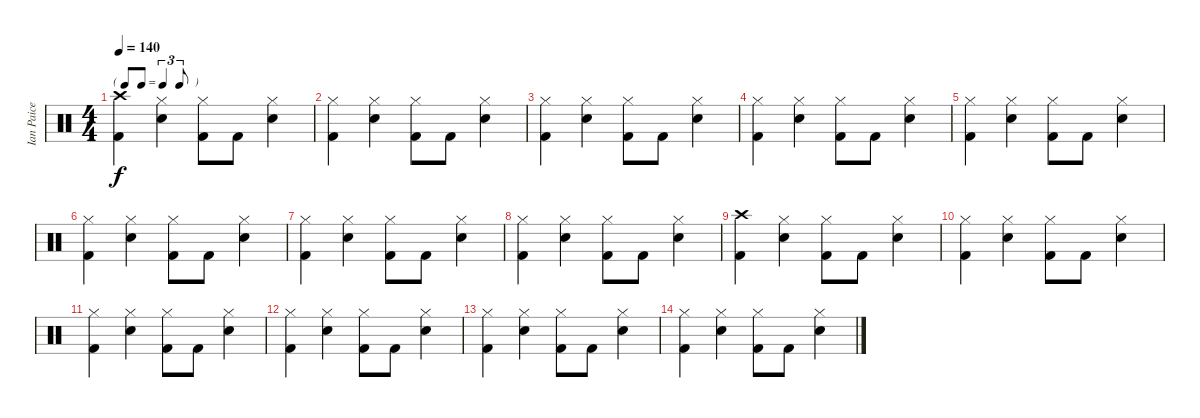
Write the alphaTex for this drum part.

\track ("Ian Paice" "Ian Paice") {instrument percussion}
\staff {score}
\articulation defaults
\ts (4 4)
\tf triplet8th
\tempo 140
\clef neutral
\ks c
("Crash high (hit)" "Kick (hit) 2").4{dy f} ("Hi-Hat (closed)" "Electric Snare (hit)").4 ("Hi-Hat (closed)" "Kick (hit) 2").8 "Kick (hit) 2".8 ("Hi-Hat (closed)" "Electric Snare (hit)").4 |
("Hi-Hat (closed)" "Kick (hit) 2").4 ("Hi-Hat (closed)" "Electric Snare (hit)").4 ("Hi-Hat (closed)" "Kick (hit) 2").8 "Kick (hit) 2".8 ("Hi-Hat (closed)" "Electric Snare (hit)").4 |
("Hi-Hat (closed)" "Kick (hit) 2").4 ("Hi-Hat (closed)" "Electric Snare (hit)").4 ("Hi-Hat (closed)" "Kick (hit) 2").8 "Kick (hit) 2".8 ("Hi-Hat (closed)" "Electric Snare (hit)").4 |
("Hi-Hat (closed)" "Kick (hit) 2").4 ("Hi-Hat (closed)" "Electric Snare (hit)").4 ("Hi-Hat (closed)" "Kick (hit) 2").8 "Kick (hit) 2".8 ("Hi-Hat (closed)" "Electric Snare (hit)").4 |
("Hi-Hat (closed)" "Kick (hit) 2").4 ("Hi-Hat (closed)" "Electric Snare (hit)").4 ("Hi-Hat (closed)" "Kick (hit) 2").8 "Kick (hit) 2".8 ("Hi-Hat (closed)" "Electric Snare (hit)").4 |
("Hi-Hat (closed)" "Kick (hit) 2").4 ("Hi-Hat (closed)" "Electric Snare (hit)").4 ("Hi-Hat (closed)" "Kick (hit) 2").8 "Kick (hit) 2".8 ("Hi-Hat (closed)" "Electric Snare (hit)").4 |
("Hi-Hat (closed)" "Kick (hit) 2").4 ("Hi-Hat (closed)" "Electric Snare (hit)").4 ("Hi-Hat (closed)" "Kick (hit) 2").8 "Kick (hit) 2".8 ("Hi-Hat (closed)" "Electric Snare (hit)").4 |
("Hi-Hat (closed)" "Kick (hit) 2").4 ("Hi-Hat (closed)" "Electric Snare (hit)").4 ("Hi-Hat (closed)" "Kick (hit) 2").8 "Kick (hit) 2".8 ("Hi-Hat (closed)" "Electric Snare (hit)").4 |
("Crash high (hit)" "Kick (hit) 2").4 ("Hi-Hat (closed)" "Electric Snare (hit)").4 ("Hi-Hat (closed)" "Kick (hit) 2").8 "Kick (hit) 2".8 ("Hi-Hat (closed)" "Electric Snare (hit)").4 |
("Hi-Hat (closed)" "Kick (hit) 2").4 ("Hi-Hat (closed)" "Electric Snare (hit)").4 ("Hi-Hat (closed)" "Kick (hit) 2").8 "Kick (hit) 2".8 ("Hi-Hat (closed)" "Electric Snare (hit)").4 |
("Hi-Hat (closed)" "Kick (hit) 2").4{volume 0} ("Hi-Hat (closed)" "Electric Snare (hit)").4 ("Hi-Hat (closed)" "Kick (hit) 2").8 "Kick (hit) 2".8 ("Hi-Hat (closed)" "Electric Snare (hit)").4 |
("Hi-Hat (closed)" "Kick (hit) 2").4 ("Hi-Hat (closed)" "Electric Snare (hit)").4 ("Hi-Hat (closed)" "Kick (hit) 2").8 "Kick (hit) 2".8 ("Hi-Hat (closed)" "Electric Snare (hit)").4 |
("Hi-Hat (closed)" "Kick (hit) 2").4 ("Hi-Hat (closed)" "Electric Snare (hit)").4 ("Hi-Hat (closed)" "Kick (hit) 2").8 "Kick (hit) 2".8 ("Hi-Hat (closed)" "Electric Snare (hit)").4 |
("Hi-Hat (closed)" "Kick (hit) 2").4 ("Hi-Hat (closed)" "Electric Snare (hit)").4 ("Hi-Hat (closed)" "Kick (hit) 2").8 "Kick (hit) 2".8 ("Hi-Hat (closed)" "Electric Snare (hit)").4
